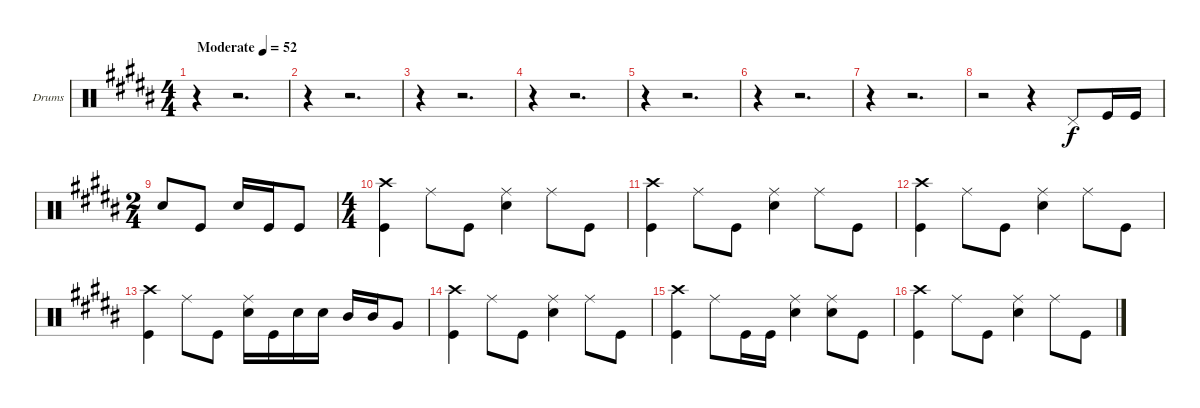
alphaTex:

\bracketExtendMode groupsimilarinstruments
\firstSystemTrackNameOrientation horizontal
\otherSystemsTrackNameOrientation horizontal
\track ("Drumkit" "Drums") {solo instrument percussion}
\staff {score}
\articulation defaults
\ts (4 4)
\beaming (8 2 2 2 2)
\tempo (52 "Moderate")
\clef neutral
\ks g#minor
r.4{dy f} r.2{d} |
r.4 r.2{d} |
r.4 r.2{d} |
r.4 r.2{d} |
r.4 r.2{d} |
r.4 r.2{d} |
r.4 r.2{d} |
r.2 r.4 "Pedal Hi-Hat (hit)".8 "Kick (hit)".16 "Kick (hit)".16 |
\ts (2 4)
\beaming (8 2 2)
"Snare (hit) 2".8 "Kick (hit)".8 "Snare (hit) 2".16 "Kick (hit)".16 "Kick (hit)".8 |
\ts (4 4)
\beaming (8 2 2 2 2)
("Crash high (hit)" "Kick (hit)").4 "Ride (middle)".8 "Kick (hit)".8 ("Ride (middle)" "Snare (hit) 2").4 "Ride (middle)".8 "Kick (hit)".8 |
("Crash high (hit)" "Kick (hit)").4 "Ride (middle)".8 "Kick (hit)".8 ("Ride (middle)" "Snare (hit) 2").4 "Ride (middle)".8 "Kick (hit)".8 |
("Crash high (hit)" "Kick (hit)").4 "Ride (middle)".8 "Kick (hit)".8 ("Ride (middle)" "Snare (hit) 2").4 "Ride (middle)".8 "Kick (hit)".8 |
("Crash high (hit)" "Kick (hit)").4 "Ride (middle)".8 "Kick (hit)".8 ("Ride (middle)" "Snare (hit) 2").16 "Kick (hit)".16 "Snare (hit) 2".16 "Snare (hit) 2".16 "Mid Tom (hit)".16 "Mid Tom (hit)".16 "Very Low Tom (hit)".8 |
("Crash high (hit)" "Kick (hit)").4 "Ride (middle)".8 "Kick (hit)".8 ("Ride (middle)" "Snare (hit) 2").4 "Ride (middle)".8 "Kick (hit)".8 |
("Crash high (hit)" "Kick (hit)").4 "Ride (middle)".8 "Kick (hit)".16 "Kick (hit)".16 ("Ride (middle)" "Snare (hit) 2").4 ("Ride (middle)" "Snare (hit) 2").8 "Kick (hit)".8 |
("Crash high (hit)" "Kick (hit)").4 "Ride (middle)".8 "Kick (hit)".8 ("Ride (middle)" "Snare (hit) 2").4 "Ride (middle)".8 "Kick (hit)".8
